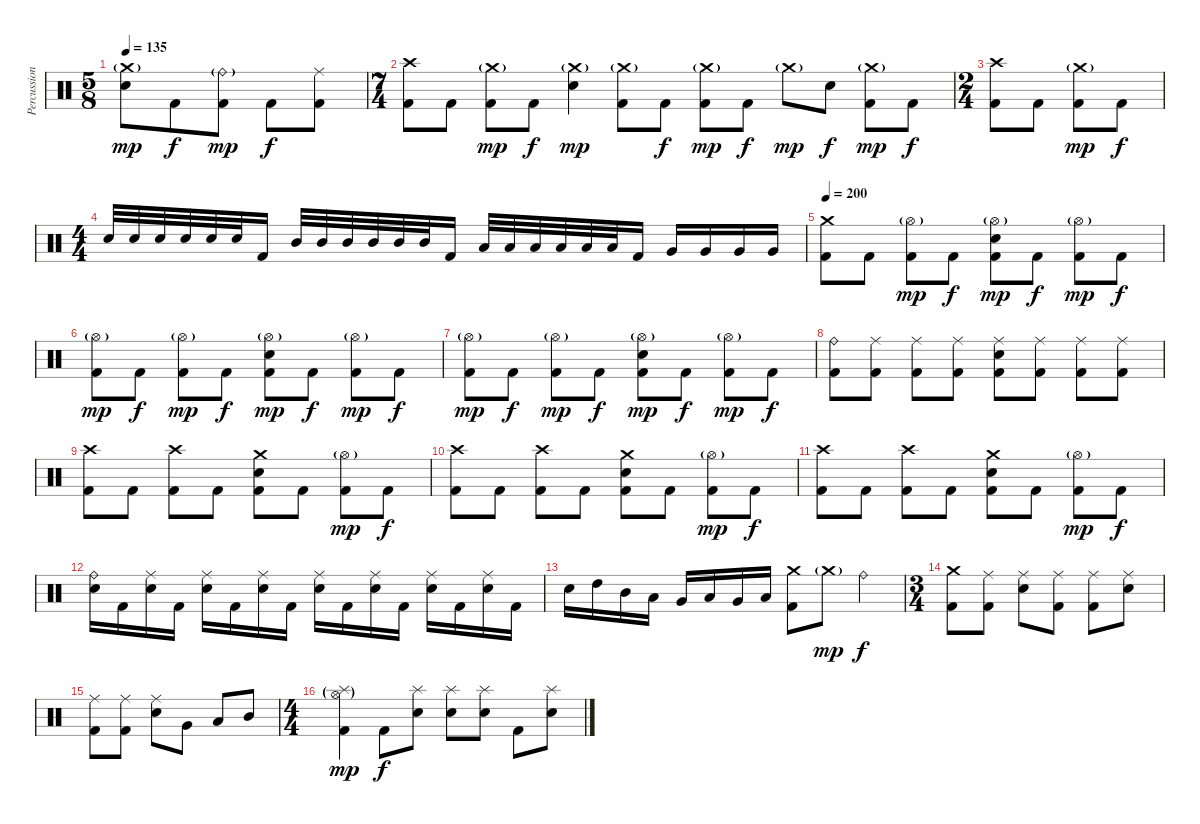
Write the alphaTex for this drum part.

\track ("Percussion" "Percussion") {instrument percussion}
\staff {score}
\articulation defaults
\ts (5 8)
\tempo 135
\clef neutral
\ks c
("Crash medium (hit)"{g} "Electric Snare (hit)").8{dy mp} "Kick (hit) 2".8{dy f} ("Ride (bell)"{g} "Kick (hit) 2").8{dy mp} "Kick (hit) 2".8{dy f} ("Ride (middle)" "Kick (hit) 2").8 |
\ts (7 4)
("Crash high (hit)" "Kick (hit) 2").8 "Kick (hit) 2".8 ("Crash medium (hit)"{g} "Kick (hit) 2").8{dy mp} "Kick (hit) 2".8{dy f} ("Crash medium (hit)"{g} "Electric Snare (hit)").4{dy mp} ("Crash medium (hit)"{g} "Kick (hit) 2").8 "Kick (hit) 2".8{dy f} ("Crash medium (hit)"{g} "Kick (hit) 2").8{dy mp} "Kick (hit) 2".8{dy f} "Crash medium (hit)"{g}.8{dy mp} "Electric Snare (hit)".8{dy f} ("Crash medium (hit)"{g} "Kick (hit) 2").8{dy mp} "Kick (hit) 2".8{dy f} |
\ts (2 4)
("Crash high (hit)" "Kick (hit) 2").8 "Kick (hit) 2".8 ("Crash medium (hit)"{g} "Kick (hit) 2").8{dy mp} "Kick (hit) 2".8{dy f} |
\ts (4 4)
"Electric Snare (hit)".32 "Electric Snare (hit)".32 "Electric Snare (hit)".32 "Electric Snare (hit)".32 "Electric Snare (hit)".32 "Electric Snare (hit)".32 "Kick (hit) 2".16 "Mid Tom (hit)".32 "Mid Tom (hit)".32 "Mid Tom (hit)".32 "Mid Tom (hit)".32 "Mid Tom (hit)".32 "Mid Tom (hit)".32 "Kick (hit) 2".16 "Low Tom (hit)".32 "Low Tom (hit)".32 "Low Tom (hit)".32 "Low Tom (hit)".32 "Low Tom (hit)".32 "Low Tom (hit)".32 "Kick (hit) 2".16 "Very Low Tom (hit)".16 "Very Low Tom (hit)".16 "Very Low Tom (hit)".16 "Very Low Tom (hit)".16 |
\tempo 200
("Crash medium (hit)" "Kick (hit) 2").8 "Kick (hit) 2".8 ("Hi-Hat (open)"{g} "Kick (hit) 2").8{dy mp} "Kick (hit) 2".8{dy f} ("Hi-Hat (open)"{g} "Electric Snare (hit)" "Kick (hit) 2").8{dy mp} "Kick (hit) 2".8{dy f} ("Hi-Hat (open)"{g} "Kick (hit) 2").8{dy mp} "Kick (hit) 2".8{dy f} |
("Hi-Hat (open)"{g} "Kick (hit) 2").8{dy mp} "Kick (hit) 2".8{dy f} ("Hi-Hat (open)"{g} "Kick (hit) 2").8{dy mp} "Kick (hit) 2".8{dy f} ("Hi-Hat (open)"{g} "Electric Snare (hit)" "Kick (hit) 2").8{dy mp} "Kick (hit) 2".8{dy f} ("Hi-Hat (open)"{g} "Kick (hit) 2").8{dy mp} "Kick (hit) 2".8{dy f} |
("Hi-Hat (open)"{g} "Kick (hit) 2").8{dy mp} "Kick (hit) 2".8{dy f} ("Hi-Hat (open)"{g} "Kick (hit) 2").8{dy mp} "Kick (hit) 2".8{dy f} ("Hi-Hat (open)"{g} "Electric Snare (hit)" "Kick (hit) 2").8{dy mp} "Kick (hit) 2".8{dy f} ("Hi-Hat (open)"{g} "Kick (hit) 2").8{dy mp} "Kick (hit) 2".8{dy f} |
("Ride (bell)" "Kick (hit) 2").8 ("Ride (middle)" "Kick (hit) 2").8 ("Ride (middle)" "Kick (hit) 2").8 ("Ride (middle)" "Kick (hit) 2").8 ("Ride (middle)" "Electric Snare (hit)" "Kick (hit) 2").8 ("Ride (middle)" "Kick (hit) 2").8 ("Ride (middle)" "Kick (hit) 2").8 ("Ride (middle)" "Kick (hit) 2").8 |
("Crash high (hit)" "Kick (hit) 2").8 "Kick (hit) 2".8 ("Crash high (hit)" "Kick (hit) 2").8 "Kick (hit) 2".8 ("Crash medium (hit)" "Electric Snare (hit)" "Kick (hit) 2").8 "Kick (hit) 2".8 ("Hi-Hat (open)"{g} "Kick (hit) 2").8{dy mp} "Kick (hit) 2".8{dy f} |
("Crash high (hit)" "Kick (hit) 2").8 "Kick (hit) 2".8 ("Crash high (hit)" "Kick (hit) 2").8 "Kick (hit) 2".8 ("Crash medium (hit)" "Electric Snare (hit)" "Kick (hit) 2").8 "Kick (hit) 2".8 ("Hi-Hat (open)"{g} "Kick (hit) 2").8{dy mp} "Kick (hit) 2".8{dy f} |
("Crash high (hit)" "Kick (hit) 2").8 "Kick (hit) 2".8 ("Crash high (hit)" "Kick (hit) 2").8 "Kick (hit) 2".8 ("Crash medium (hit)" "Electric Snare (hit)" "Kick (hit) 2").8 "Kick (hit) 2".8 ("Hi-Hat (open)"{g} "Kick (hit) 2").8{dy mp} "Kick (hit) 2".8{dy f} |
("Ride (bell)" "Electric Snare (hit)").16 "Kick (hit) 2".16 ("Ride (middle)" "Electric Snare (hit)").16 "Kick (hit) 2".16 ("Ride (middle)" "Electric Snare (hit)").16 "Kick (hit) 2".16 ("Ride (middle)" "Electric Snare (hit)").16 "Kick (hit) 2".16 ("Ride (middle)" "Electric Snare (hit)").16 "Kick (hit) 2".16 ("Ride (middle)" "Electric Snare (hit)").16 "Kick (hit) 2".16 ("Ride (middle)" "Electric Snare (hit)").16 "Kick (hit) 2".16 ("Ride (middle)" "Electric Snare (hit)").16 "Kick (hit) 2".16 |
"Electric Snare (hit)".16 "High Tom (hit)".16 "Mid Tom (hit)".16 "Low Tom (hit)".16 "Very Low Tom (hit)".16 "Low Floor Tom (hit)".16 "Very Low Tom (hit)".16 "Low Tom (hit)".16 ("Crash medium (hit)" "Kick (hit) 2").8 "Crash medium (hit)"{g}.8{dy mp} "Ride (bell)".4{dy f} |
\ts (3 4)
("Crash medium (hit)" "Kick (hit) 2").8 ("Ride (middle)" "Kick (hit) 2").8 ("Ride (middle)" "Electric Snare (hit)").8 ("Ride (middle)" "Kick (hit) 2").8 ("Ride (middle)" "Kick (hit) 2").8 ("Ride (middle)" "Electric Snare (hit)").8 |
("Ride (middle)" "Kick (hit) 2").8 ("Ride (middle)" "Kick (hit) 2").8 ("Ride (middle)" "Electric Snare (hit)").8 "Very Low Tom (hit)".8 "Low Tom (hit)".8 "Mid Tom (hit)".8 |
\ts (4 4)
("Splash (hit)"{g} "Hi-Hat (open)"{g} "Kick (hit) 2").4{dy mp} "Kick (hit) 2".8{dy f} ("Splash (hit)" "Electric Snare (hit)").8 ("Splash (hit)" "Electric Snare (hit)").8 ("Splash (hit)" "Electric Snare (hit)").8 "Kick (hit) 2".8 ("Splash (hit)" "Electric Snare (hit)").8
